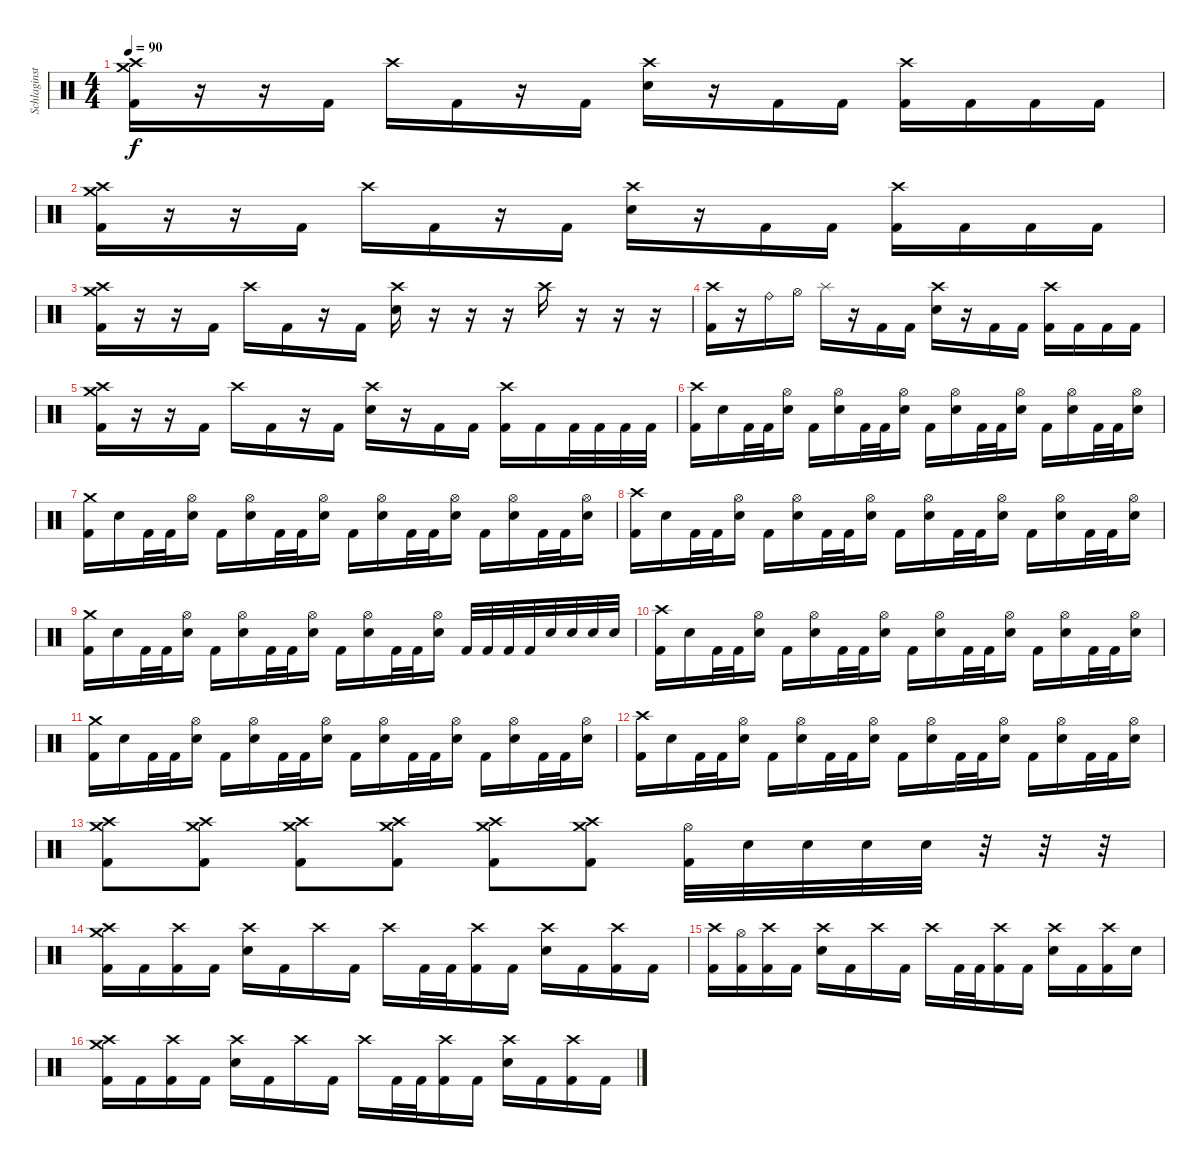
\track ("Schlaginstrumente - Auswahl" "Schlaginst") {instrument percussion}
\staff {score}
\articulation defaults
\ts (4 4)
\tempo 90
\clef neutral
\ks c
("Crash high (hit)" "Crash medium (hit)" "Kick (hit) 2").16{dy f} r.16 r.16 "Kick (hit) 2".16 "Crash high (hit)".16 "Kick (hit) 2".16 r.16 "Kick (hit) 2".16 ("Crash high (hit)" "Electric Snare (hit)").16 r.16 "Kick (hit) 2".16 "Kick (hit) 2".16 ("Crash high (hit)" "Kick (hit) 2").16 "Kick (hit) 2".16 "Kick (hit) 2".16 "Kick (hit) 2".16 |
("Crash high (hit)" "Crash medium (hit)" "Kick (hit) 2").16 r.16 r.16 "Kick (hit) 2".16 "Crash high (hit)".16 "Kick (hit) 2".16 r.16 "Kick (hit) 2".16 ("Crash high (hit)" "Electric Snare (hit)").16 r.16 "Kick (hit) 2".16 "Kick (hit) 2".16 ("Crash high (hit)" "Kick (hit) 2").16 "Kick (hit) 2".16 "Kick (hit) 2".16 "Kick (hit) 2".16 |
("Crash high (hit)" "Crash medium (hit)" "Kick (hit) 2").16 r.16 r.16 "Kick (hit) 2".16 "Crash high (hit)".16 "Kick (hit) 2".16 r.16 "Kick (hit) 2".16 ("Crash high (hit)" "Electric Snare (hit)").16 r.16 r.16 r.16 "Crash high (hit)".16 r.16 r.16 r.16 |
("Crash high (hit)" "Kick (hit) 2").16 r.16 "Ride (bell)".16 "Hi-Hat (open)".16 "Splash (hit)".16 r.16 "Kick (hit) 2".16 "Kick (hit) 2".16 ("Crash high (hit)" "Electric Snare (hit)").16 r.16 "Kick (hit) 2".16 "Kick (hit) 2".16 ("Crash high (hit)" "Kick (hit) 2").16 "Kick (hit) 2".16 "Kick (hit) 2".16 "Kick (hit) 2".16 |
("Crash high (hit)" "Crash medium (hit)" "Kick (hit) 2").16 r.16 r.16 "Kick (hit) 2".16 "Crash high (hit)".16 "Kick (hit) 2".16 r.16 "Kick (hit) 2".16 ("Crash high (hit)" "Electric Snare (hit)").16 r.16 "Kick (hit) 2".16 "Kick (hit) 2".16 ("Crash high (hit)" "Kick (hit) 2").16 "Kick (hit) 2".16 "Kick (hit) 2".32 "Kick (hit) 2".32 "Kick (hit) 2".32 "Kick (hit) 2".32 |
("Crash high (hit)" "Kick (hit) 2").16 "Electric Snare (hit)".16 "Kick (hit) 2".32 "Kick (hit) 2".32 ("Hi-Hat (open)" "Electric Snare (hit)").16 "Kick (hit) 2".16 ("Hi-Hat (open)" "Electric Snare (hit)").16 "Kick (hit) 2".32 "Kick (hit) 2".32 ("Hi-Hat (open)" "Electric Snare (hit)").16 "Kick (hit) 2".16 ("Hi-Hat (open)" "Electric Snare (hit)").16 "Kick (hit) 2".32 "Kick (hit) 2".32 ("Hi-Hat (open)" "Electric Snare (hit)").16 "Kick (hit) 2".16 ("Hi-Hat (open)" "Electric Snare (hit)").16 "Kick (hit) 2".32 "Kick (hit) 2".32 ("Hi-Hat (open)" "Electric Snare (hit)").16 |
("Crash medium (hit)" "Kick (hit) 2").16 "Electric Snare (hit)".16 "Kick (hit) 2".32 "Kick (hit) 2".32 ("Hi-Hat (open)" "Electric Snare (hit)").16 "Kick (hit) 2".16 ("Hi-Hat (open)" "Electric Snare (hit)").16 "Kick (hit) 2".32 "Kick (hit) 2".32 ("Hi-Hat (open)" "Electric Snare (hit)").16 "Kick (hit) 2".16 ("Hi-Hat (open)" "Electric Snare (hit)").16 "Kick (hit) 2".32 "Kick (hit) 2".32 ("Hi-Hat (open)" "Electric Snare (hit)").16 "Kick (hit) 2".16 ("Hi-Hat (open)" "Electric Snare (hit)").16 "Kick (hit) 2".32 "Kick (hit) 2".32 ("Hi-Hat (open)" "Electric Snare (hit)").16 |
("Crash high (hit)" "Kick (hit) 2").16 "Electric Snare (hit)".16 "Kick (hit) 2".32 "Kick (hit) 2".32 ("Hi-Hat (open)" "Electric Snare (hit)").16 "Kick (hit) 2".16 ("Hi-Hat (open)" "Electric Snare (hit)").16 "Kick (hit) 2".32 "Kick (hit) 2".32 ("Hi-Hat (open)" "Electric Snare (hit)").16 "Kick (hit) 2".16 ("Hi-Hat (open)" "Electric Snare (hit)").16 "Kick (hit) 2".32 "Kick (hit) 2".32 ("Hi-Hat (open)" "Electric Snare (hit)").16 "Kick (hit) 2".16 ("Hi-Hat (open)" "Electric Snare (hit)").16 "Kick (hit) 2".32 "Kick (hit) 2".32 ("Hi-Hat (open)" "Electric Snare (hit)").16 |
("Crash medium (hit)" "Kick (hit) 2").16 "Electric Snare (hit)".16 "Kick (hit) 2".32 "Kick (hit) 2".32 ("Hi-Hat (open)" "Electric Snare (hit)").16 "Kick (hit) 2".16 ("Hi-Hat (open)" "Electric Snare (hit)").16 "Kick (hit) 2".32 "Kick (hit) 2".32 ("Hi-Hat (open)" "Electric Snare (hit)").16 "Kick (hit) 2".16 ("Hi-Hat (open)" "Electric Snare (hit)").16 "Kick (hit) 2".32 "Kick (hit) 2".32 ("Hi-Hat (open)" "Electric Snare (hit)").16 "Kick (hit) 2".32 "Kick (hit) 2".32 "Kick (hit) 2".32 "Kick (hit) 2".32 "Electric Snare (hit)".32 "Electric Snare (hit)".32 "Electric Snare (hit)".32 "Electric Snare (hit)".32 |
("Crash high (hit)" "Kick (hit) 2").16 "Electric Snare (hit)".16 "Kick (hit) 2".32 "Kick (hit) 2".32 ("Hi-Hat (open)" "Electric Snare (hit)").16 "Kick (hit) 2".16 ("Hi-Hat (open)" "Electric Snare (hit)").16 "Kick (hit) 2".32 "Kick (hit) 2".32 ("Hi-Hat (open)" "Electric Snare (hit)").16 "Kick (hit) 2".16 ("Hi-Hat (open)" "Electric Snare (hit)").16 "Kick (hit) 2".32 "Kick (hit) 2".32 ("Hi-Hat (open)" "Electric Snare (hit)").16 "Kick (hit) 2".16 ("Hi-Hat (open)" "Electric Snare (hit)").16 "Kick (hit) 2".32 "Kick (hit) 2".32 ("Hi-Hat (open)" "Electric Snare (hit)").16 |
("Crash medium (hit)" "Kick (hit) 2").16 "Electric Snare (hit)".16 "Kick (hit) 2".32 "Kick (hit) 2".32 ("Hi-Hat (open)" "Electric Snare (hit)").16 "Kick (hit) 2".16 ("Hi-Hat (open)" "Electric Snare (hit)").16 "Kick (hit) 2".32 "Kick (hit) 2".32 ("Hi-Hat (open)" "Electric Snare (hit)").16 "Kick (hit) 2".16 ("Hi-Hat (open)" "Electric Snare (hit)").16 "Kick (hit) 2".32 "Kick (hit) 2".32 ("Hi-Hat (open)" "Electric Snare (hit)").16 "Kick (hit) 2".16 ("Hi-Hat (open)" "Electric Snare (hit)").16 "Kick (hit) 2".32 "Kick (hit) 2".32 ("Hi-Hat (open)" "Electric Snare (hit)").16 |
("Crash high (hit)" "Kick (hit) 2").16 "Electric Snare (hit)".16 "Kick (hit) 2".32 "Kick (hit) 2".32 ("Hi-Hat (open)" "Electric Snare (hit)").16 "Kick (hit) 2".16 ("Hi-Hat (open)" "Electric Snare (hit)").16 "Kick (hit) 2".32 "Kick (hit) 2".32 ("Hi-Hat (open)" "Electric Snare (hit)").16 "Kick (hit) 2".16 ("Hi-Hat (open)" "Electric Snare (hit)").16 "Kick (hit) 2".32 "Kick (hit) 2".32 ("Hi-Hat (open)" "Electric Snare (hit)").16 "Kick (hit) 2".16 ("Hi-Hat (open)" "Electric Snare (hit)").16 "Kick (hit) 2".32 "Kick (hit) 2".32 ("Hi-Hat (open)" "Electric Snare (hit)").16 |
("Crash high (hit)" "Crash medium (hit)" "Kick (hit) 2").8 ("Crash high (hit)" "Crash medium (hit)" "Kick (hit) 2").8 ("Crash high (hit)" "Crash medium (hit)" "Kick (hit) 2").8 ("Crash high (hit)" "Crash medium (hit)" "Kick (hit) 2").8 ("Crash high (hit)" "Crash medium (hit)" "Kick (hit) 2").8 ("Crash high (hit)" "Crash medium (hit)" "Kick (hit) 2").8 ("Hi-Hat (open)" "Kick (hit) 2").32 "Electric Snare (hit)".32 "Electric Snare (hit)".32 "Electric Snare (hit)".32 "Electric Snare (hit)".32 r.32 r.32 r.32 |
("Crash high (hit)" "Crash medium (hit)" "Kick (hit) 2").16 "Kick (hit) 2".16 ("Crash high (hit)" "Kick (hit) 2").16 "Kick (hit) 2".16 ("Crash high (hit)" "Electric Snare (hit)").16 "Kick (hit) 2".16 "Crash high (hit)".16 "Kick (hit) 2".16 "Crash high (hit)".16 "Kick (hit) 2".32 "Kick (hit) 2".32 ("Crash high (hit)" "Kick (hit) 2").16 "Kick (hit) 2".16 ("Crash high (hit)" "Electric Snare (hit)").16 "Kick (hit) 2".16 ("Crash high (hit)" "Kick (hit) 2").16 "Kick (hit) 2".16 |
("Crash high (hit)" "Kick (hit) 2").16 ("Hi-Hat (open)" "Kick (hit) 2").16 ("Crash high (hit)" "Kick (hit) 2").16 "Kick (hit) 2".16 ("Crash high (hit)" "Electric Snare (hit)").16 "Kick (hit) 2".16 "Crash high (hit)".16 "Kick (hit) 2".16 "Crash high (hit)".16 "Kick (hit) 2".32 "Kick (hit) 2".32 ("Crash high (hit)" "Kick (hit) 2").16 "Kick (hit) 2".16 ("Crash high (hit)" "Electric Snare (hit)").16 "Kick (hit) 2".16 ("Crash high (hit)" "Kick (hit) 2").16 "Electric Snare (hit)".16 |
("Crash high (hit)" "Crash medium (hit)" "Kick (hit) 2").16 "Kick (hit) 2".16 ("Crash high (hit)" "Kick (hit) 2").16 "Kick (hit) 2".16 ("Crash high (hit)" "Electric Snare (hit)").16 "Kick (hit) 2".16 "Crash high (hit)".16 "Kick (hit) 2".16 "Crash high (hit)".16 "Kick (hit) 2".32 "Kick (hit) 2".32 ("Crash high (hit)" "Kick (hit) 2").16 "Kick (hit) 2".16 ("Crash high (hit)" "Electric Snare (hit)").16 "Kick (hit) 2".16 ("Crash high (hit)" "Kick (hit) 2").16 "Kick (hit) 2".16
